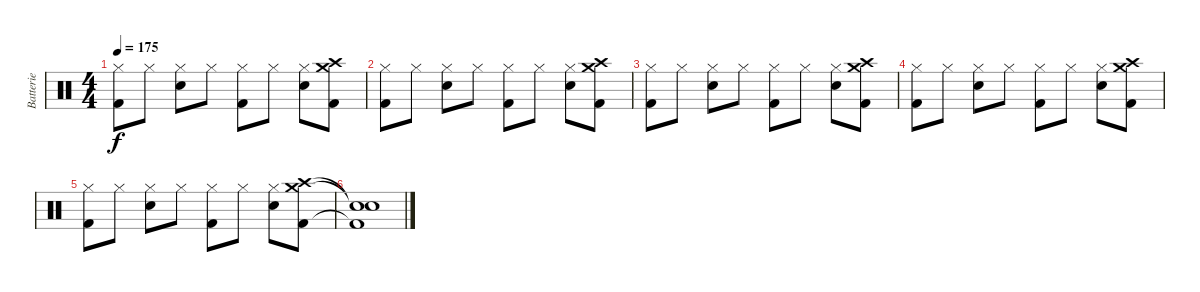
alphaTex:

\track ("Batterie" "Batterie") {instrument percussion}
\staff {score}
\articulation defaults
\ts (4 4)
\tempo 175
\clef neutral
\ks c
("Hi-Hat (closed)" "Kick (hit) 2").8{dy f} "Hi-Hat (closed)".8 ("Hi-Hat (closed)" "Snare (hit) 2").8 "Hi-Hat (closed)".8 ("Hi-Hat (closed)" "Kick (hit) 2").8 "Hi-Hat (closed)".8 ("Hi-Hat (closed)" "Snare (hit) 2").8 ("Crash high (hit)" "Crash medium (hit)" "Kick (hit) 2").8 |
("Hi-Hat (closed)" "Kick (hit) 2").8 "Hi-Hat (closed)".8 ("Hi-Hat (closed)" "Snare (hit) 2").8 "Hi-Hat (closed)".8 ("Hi-Hat (closed)" "Kick (hit) 2").8 "Hi-Hat (closed)".8 ("Hi-Hat (closed)" "Snare (hit) 2").8 ("Crash high (hit)" "Crash medium (hit)" "Kick (hit) 2").8 |
("Hi-Hat (closed)" "Kick (hit) 2").8 "Hi-Hat (closed)".8 ("Hi-Hat (closed)" "Snare (hit) 2").8 "Hi-Hat (closed)".8 ("Hi-Hat (closed)" "Kick (hit) 2").8 "Hi-Hat (closed)".8 ("Hi-Hat (closed)" "Snare (hit) 2").8 ("Crash high (hit)" "Crash medium (hit)" "Kick (hit) 2").8 |
("Hi-Hat (closed)" "Kick (hit) 2").8 "Hi-Hat (closed)".8 ("Hi-Hat (closed)" "Snare (hit) 2").8 "Hi-Hat (closed)".8 ("Hi-Hat (closed)" "Kick (hit) 2").8 "Hi-Hat (closed)".8 ("Hi-Hat (closed)" "Snare (hit) 2").8 ("Crash high (hit)" "Crash medium (hit)" "Kick (hit) 2").8 |
("Hi-Hat (closed)" "Kick (hit) 2").8 "Hi-Hat (closed)".8 ("Hi-Hat (closed)" "Snare (hit) 2").8 "Hi-Hat (closed)".8 ("Hi-Hat (closed)" "Kick (hit) 2").8 "Hi-Hat (closed)".8 ("Hi-Hat (closed)" "Snare (hit) 2").8 ("Crash high (hit)" "Crash medium (hit)" "Kick (hit) 2").8 |
("Snare (hit)"{t} "Snare (hit)"{t} "Kick (hit) 2"{t}).1
